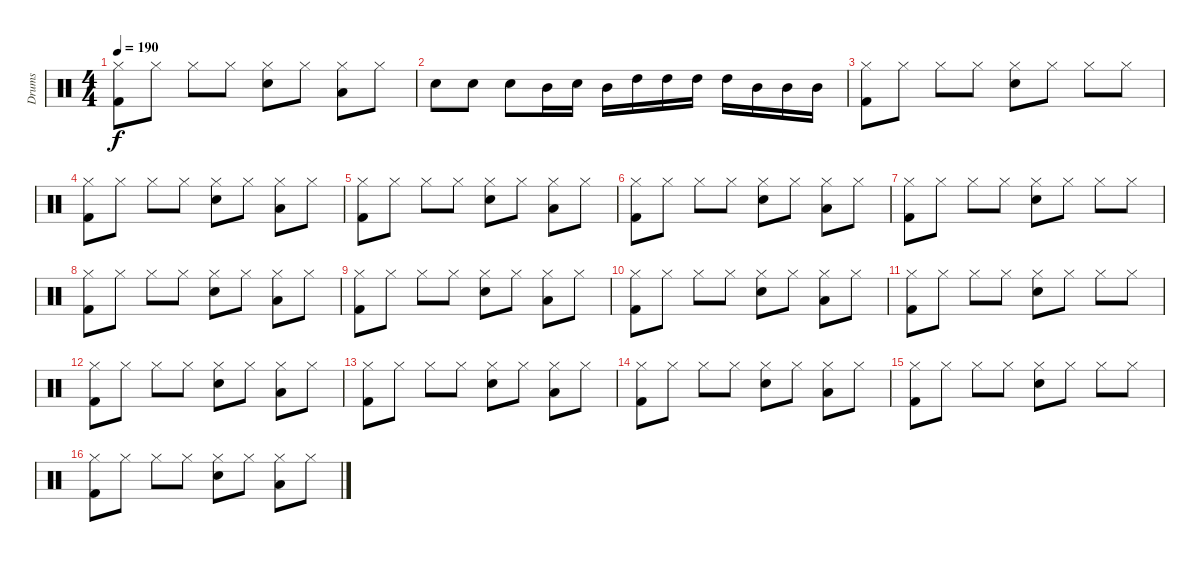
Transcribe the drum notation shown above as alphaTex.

\track ("Drums" "Drums") {instrument percussion}
\staff {score}
\articulation defaults
\ts (4 4)
\tempo 190
\clef neutral
\ks c
("Kick (hit) 2" "Hi-Hat (closed)").8{dy f} "Hi-Hat (closed)".8 "Hi-Hat (closed)".8 "Hi-Hat (closed)".8 ("Snare (hit) 2" "Hi-Hat (closed)").8 "Hi-Hat (closed)".8 ("Low Tom (hit)" "Hi-Hat (closed)").8 "Hi-Hat (closed)".8 |
"Snare (hit) 2".8{balance 16} "Snare (hit) 2".8{balance 0} "Snare (hit) 2".8 "Mid Tom (hit)".16 "Snare (hit) 2".16 "Mid Tom (hit)".16 "High Tom (hit)".16 "High Tom (hit)".16 "High Tom (hit)".16 "High Tom (hit)".16 "Mid Tom (hit)".16 "Mid Tom (hit)".16 "Mid Tom (hit)".16 |
("Kick (hit) 2" "Hi-Hat (closed)").8{balance 8} "Hi-Hat (closed)".8 "Hi-Hat (closed)".8 "Hi-Hat (closed)".8 ("Snare (hit) 2" "Hi-Hat (closed)").8 "Hi-Hat (closed)".8 "Hi-Hat (closed)".8 "Hi-Hat (closed)".8 |
("Kick (hit) 2" "Hi-Hat (closed)").8 "Hi-Hat (closed)".8 "Hi-Hat (closed)".8 "Hi-Hat (closed)".8 ("Snare (hit) 2" "Hi-Hat (closed)").8 "Hi-Hat (closed)".8 ("Low Tom (hit)" "Hi-Hat (closed)").8 "Hi-Hat (closed)".8 |
("Kick (hit) 2" "Hi-Hat (closed)").8 "Hi-Hat (closed)".8 "Hi-Hat (closed)".8 "Hi-Hat (closed)".8 ("Snare (hit) 2" "Hi-Hat (closed)").8 "Hi-Hat (closed)".8 ("Low Tom (hit)" "Hi-Hat (closed)").8 "Hi-Hat (closed)".8 |
("Kick (hit) 2" "Hi-Hat (closed)").8 "Hi-Hat (closed)".8 "Hi-Hat (closed)".8 "Hi-Hat (closed)".8 ("Snare (hit) 2" "Hi-Hat (closed)").8 "Hi-Hat (closed)".8 ("Low Tom (hit)" "Hi-Hat (closed)").8 "Hi-Hat (closed)".8 |
("Kick (hit) 2" "Hi-Hat (closed)").8 "Hi-Hat (closed)".8 "Hi-Hat (closed)".8 "Hi-Hat (closed)".8 ("Snare (hit) 2" "Hi-Hat (closed)").8 "Hi-Hat (closed)".8 "Hi-Hat (closed)".8 "Hi-Hat (closed)".8 |
("Kick (hit) 2" "Hi-Hat (closed)").8 "Hi-Hat (closed)".8 "Hi-Hat (closed)".8 "Hi-Hat (closed)".8 ("Snare (hit) 2" "Hi-Hat (closed)").8 "Hi-Hat (closed)".8 ("Low Tom (hit)" "Hi-Hat (closed)").8 "Hi-Hat (closed)".8 |
("Kick (hit) 2" "Hi-Hat (closed)").8 "Hi-Hat (closed)".8 "Hi-Hat (closed)".8 "Hi-Hat (closed)".8 ("Snare (hit) 2" "Hi-Hat (closed)").8 "Hi-Hat (closed)".8 ("Low Tom (hit)" "Hi-Hat (closed)").8 "Hi-Hat (closed)".8 |
("Kick (hit) 2" "Hi-Hat (closed)").8 "Hi-Hat (closed)".8 "Hi-Hat (closed)".8 "Hi-Hat (closed)".8 ("Snare (hit) 2" "Hi-Hat (closed)").8 "Hi-Hat (closed)".8 ("Low Tom (hit)" "Hi-Hat (closed)").8 "Hi-Hat (closed)".8 |
("Kick (hit) 2" "Hi-Hat (closed)").8 "Hi-Hat (closed)".8 "Hi-Hat (closed)".8 "Hi-Hat (closed)".8 ("Snare (hit) 2" "Hi-Hat (closed)").8 "Hi-Hat (closed)".8 "Hi-Hat (closed)".8 "Hi-Hat (closed)".8 |
("Kick (hit) 2" "Hi-Hat (closed)").8 "Hi-Hat (closed)".8 "Hi-Hat (closed)".8 "Hi-Hat (closed)".8 ("Snare (hit) 2" "Hi-Hat (closed)").8 "Hi-Hat (closed)".8 ("Low Tom (hit)" "Hi-Hat (closed)").8 "Hi-Hat (closed)".8 |
("Kick (hit) 2" "Hi-Hat (closed)").8 "Hi-Hat (closed)".8 "Hi-Hat (closed)".8 "Hi-Hat (closed)".8 ("Snare (hit) 2" "Hi-Hat (closed)").8 "Hi-Hat (closed)".8 ("Low Tom (hit)" "Hi-Hat (closed)").8 "Hi-Hat (closed)".8 |
("Kick (hit) 2" "Hi-Hat (closed)").8 "Hi-Hat (closed)".8 "Hi-Hat (closed)".8 "Hi-Hat (closed)".8 ("Snare (hit) 2" "Hi-Hat (closed)").8 "Hi-Hat (closed)".8 ("Low Tom (hit)" "Hi-Hat (closed)").8 "Hi-Hat (closed)".8 |
("Kick (hit) 2" "Hi-Hat (closed)").8 "Hi-Hat (closed)".8 "Hi-Hat (closed)".8 "Hi-Hat (closed)".8 ("Snare (hit) 2" "Hi-Hat (closed)").8 "Hi-Hat (closed)".8 "Hi-Hat (closed)".8 "Hi-Hat (closed)".8 |
("Kick (hit) 2" "Hi-Hat (closed)").8 "Hi-Hat (closed)".8 "Hi-Hat (closed)".8 "Hi-Hat (closed)".8 ("Snare (hit) 2" "Hi-Hat (closed)").8 "Hi-Hat (closed)".8 ("Low Tom (hit)" "Hi-Hat (closed)").8 "Hi-Hat (closed)".8
